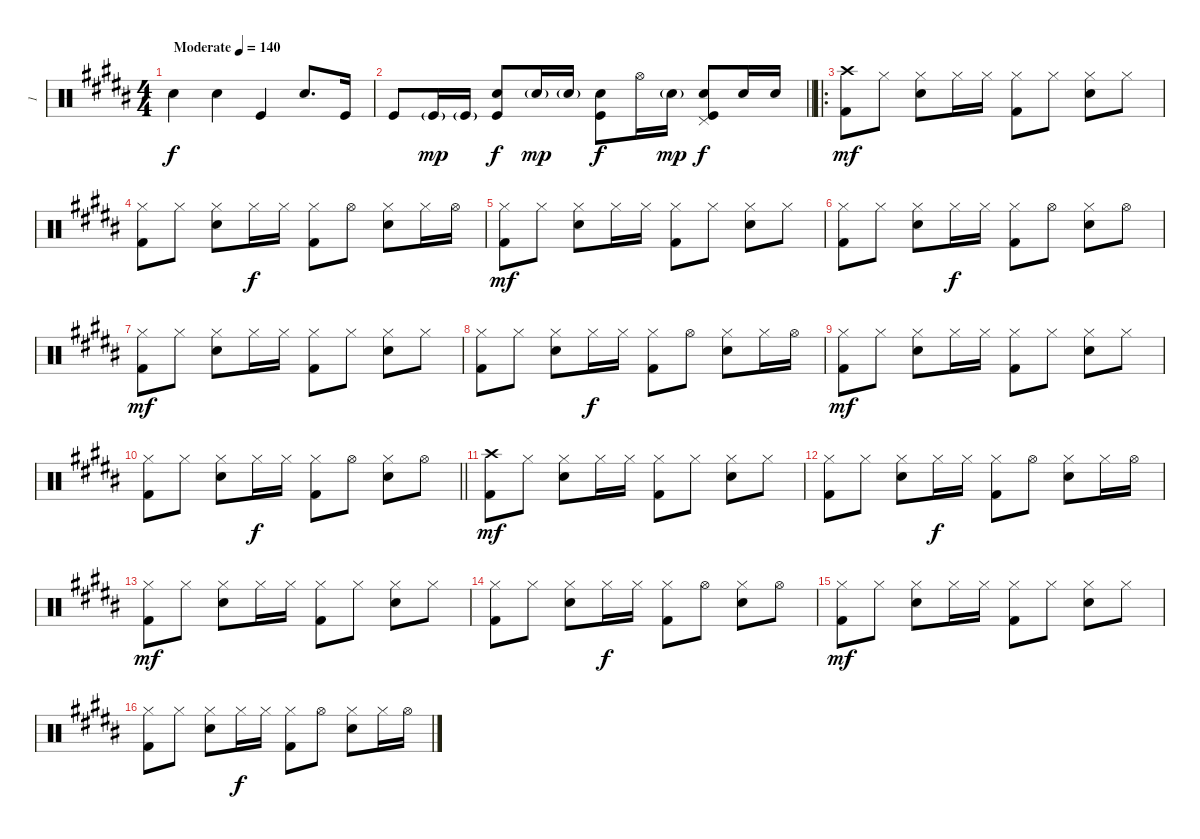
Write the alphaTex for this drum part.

\track ("1" "1") {instrument percussion}
\staff {score}
\articulation defaults
\ts (4 4)
\tempo (140 "Moderate")
\clef neutral
\ks b "Electric Snare (hit)".4{dy f} "Electric Snare (hit)".4 "Kick (hit)".4 "Electric Snare (hit)".8{d} "Kick (hit)".16
|
\barLineRight lightlight "Kick (hit)".8 "Kick (hit)"{g}.16{dy mp} "Kick (hit)"{g}.16
("Electric Snare (hit)" "Kick (hit)").8{dy f} "Electric Snare (hit)"{g}.16{dy mp} "Electric Snare (hit)"{g}.16 ("Electric Snare (hit)" "Kick (hit)").8{dy f} "Hi-Hat (open)".16 "Electric Snare (hit)"{g}.16{dy mp} ("Pedal Hi-Hat (hit)" "Electric Snare (hit)" "Kick (hit)").8{dy f} "Electric Snare (hit)".16 "Electric Snare (hit)".16 |
\ro
("Crash high (hit)" "Kick (hit) 2").8{dy mf} "Hi-Hat (closed)".8 ("Hi-Hat (closed)" "Snare (hit) 2").8 "Hi-Hat (closed)".16 "Hi-Hat (closed)".16 ("Hi-Hat (closed)" "Kick (hit) 2").8 "Hi-Hat (closed)".8 ("Hi-Hat (closed)" "Snare (hit) 2").8 "Hi-Hat (closed)".8 |
("Hi-Hat (closed)" "Kick (hit) 2").8 "Hi-Hat (closed)".8 ("Hi-Hat (closed)" "Snare (hit) 2").8 "Hi-Hat (closed)".16{dy f} "Hi-Hat (closed)".16 ("Hi-Hat (closed)" "Kick (hit) 2").8 "Hi-Hat (open)".8 ("Hi-Hat (closed)" "Snare (hit) 2").8 "Hi-Hat (closed)".16 "Hi-Hat (open)".16 |
("Hi-Hat (closed)" "Kick (hit) 2").8{dy mf} "Hi-Hat (closed)".8 ("Hi-Hat (closed)" "Snare (hit) 2").8 "Hi-Hat (closed)".16 "Hi-Hat (closed)".16 ("Hi-Hat (closed)" "Kick (hit) 2").8 "Hi-Hat (closed)".8 ("Hi-Hat (closed)" "Snare (hit) 2").8 "Hi-Hat (closed)".8 |
("Hi-Hat (closed)" "Kick (hit) 2").8 "Hi-Hat (closed)".8 ("Hi-Hat (closed)" "Snare (hit) 2").8 "Hi-Hat (closed)".16{dy f} "Hi-Hat (closed)".16 ("Hi-Hat (closed)" "Kick (hit) 2").8 "Hi-Hat (open)".8 ("Hi-Hat (closed)" "Snare (hit) 2").8 "Hi-Hat (open)".8 |
("Hi-Hat (closed)" "Kick (hit) 2").8{dy mf} "Hi-Hat (closed)".8 ("Hi-Hat (closed)" "Snare (hit) 2").8 "Hi-Hat (closed)".16 "Hi-Hat (closed)".16 ("Hi-Hat (closed)" "Kick (hit) 2").8 "Hi-Hat (closed)".8 ("Hi-Hat (closed)" "Snare (hit) 2").8 "Hi-Hat (closed)".8 |
("Hi-Hat (closed)" "Kick (hit) 2").8 "Hi-Hat (closed)".8 ("Hi-Hat (closed)" "Snare (hit) 2").8 "Hi-Hat (closed)".16{dy f} "Hi-Hat (closed)".16 ("Hi-Hat (closed)" "Kick (hit) 2").8 "Hi-Hat (open)".8 ("Hi-Hat (closed)" "Snare (hit) 2").8 "Hi-Hat (closed)".16 "Hi-Hat (open)".16 |
("Hi-Hat (closed)" "Kick (hit) 2").8{dy mf} "Hi-Hat (closed)".8 ("Hi-Hat (closed)" "Snare (hit) 2").8 "Hi-Hat (closed)".16 "Hi-Hat (closed)".16 ("Hi-Hat (closed)" "Kick (hit) 2").8 "Hi-Hat (closed)".8 ("Hi-Hat (closed)" "Snare (hit) 2").8 "Hi-Hat (closed)".8 |
\barLineRight lightlight
("Hi-Hat (closed)" "Kick (hit) 2").8 "Hi-Hat (closed)".8 ("Hi-Hat (closed)" "Snare (hit) 2").8 "Hi-Hat (closed)".16{dy f} "Hi-Hat (closed)".16 ("Hi-Hat (closed)" "Kick (hit) 2").8 "Hi-Hat (open)".8 ("Hi-Hat (closed)" "Snare (hit) 2").8 "Hi-Hat (open)".8 |
("Crash high (hit)" "Kick (hit) 2").8{dy mf} "Hi-Hat (closed)".8 ("Hi-Hat (closed)" "Snare (hit) 2").8 "Hi-Hat (closed)".16 "Hi-Hat (closed)".16 ("Hi-Hat (closed)" "Kick (hit) 2").8 "Hi-Hat (closed)".8 ("Hi-Hat (closed)" "Snare (hit) 2").8 "Hi-Hat (closed)".8 |
("Hi-Hat (closed)" "Kick (hit) 2").8 "Hi-Hat (closed)".8 ("Hi-Hat (closed)" "Snare (hit) 2").8 "Hi-Hat (closed)".16{dy f} "Hi-Hat (closed)".16 ("Hi-Hat (closed)" "Kick (hit) 2").8 "Hi-Hat (open)".8 ("Hi-Hat (closed)" "Snare (hit) 2").8 "Hi-Hat (closed)".16 "Hi-Hat (open)".16 |
("Hi-Hat (closed)" "Kick (hit) 2").8{dy mf} "Hi-Hat (closed)".8 ("Hi-Hat (closed)" "Snare (hit) 2").8 "Hi-Hat (closed)".16 "Hi-Hat (closed)".16 ("Hi-Hat (closed)" "Kick (hit) 2").8 "Hi-Hat (closed)".8 ("Hi-Hat (closed)" "Snare (hit) 2").8 "Hi-Hat (closed)".8 |
("Hi-Hat (closed)" "Kick (hit) 2").8 "Hi-Hat (closed)".8 ("Hi-Hat (closed)" "Snare (hit) 2").8 "Hi-Hat (closed)".16{dy f} "Hi-Hat (closed)".16 ("Hi-Hat (closed)" "Kick (hit) 2").8 "Hi-Hat (open)".8 ("Hi-Hat (closed)" "Snare (hit) 2").8 "Hi-Hat (open)".8 |
("Hi-Hat (closed)" "Kick (hit) 2").8{dy mf} "Hi-Hat (closed)".8 ("Hi-Hat (closed)" "Snare (hit) 2").8 "Hi-Hat (closed)".16 "Hi-Hat (closed)".16 ("Hi-Hat (closed)" "Kick (hit) 2").8 "Hi-Hat (closed)".8 ("Hi-Hat (closed)" "Snare (hit) 2").8 "Hi-Hat (closed)".8 |
("Hi-Hat (closed)" "Kick (hit) 2").8 "Hi-Hat (closed)".8 ("Hi-Hat (closed)" "Snare (hit) 2").8 "Hi-Hat (closed)".16{dy f} "Hi-Hat (closed)".16 ("Hi-Hat (closed)" "Kick (hit) 2").8 "Hi-Hat (open)".8 ("Hi-Hat (closed)" "Snare (hit) 2").8 "Hi-Hat (closed)".16 "Hi-Hat (open)".16
